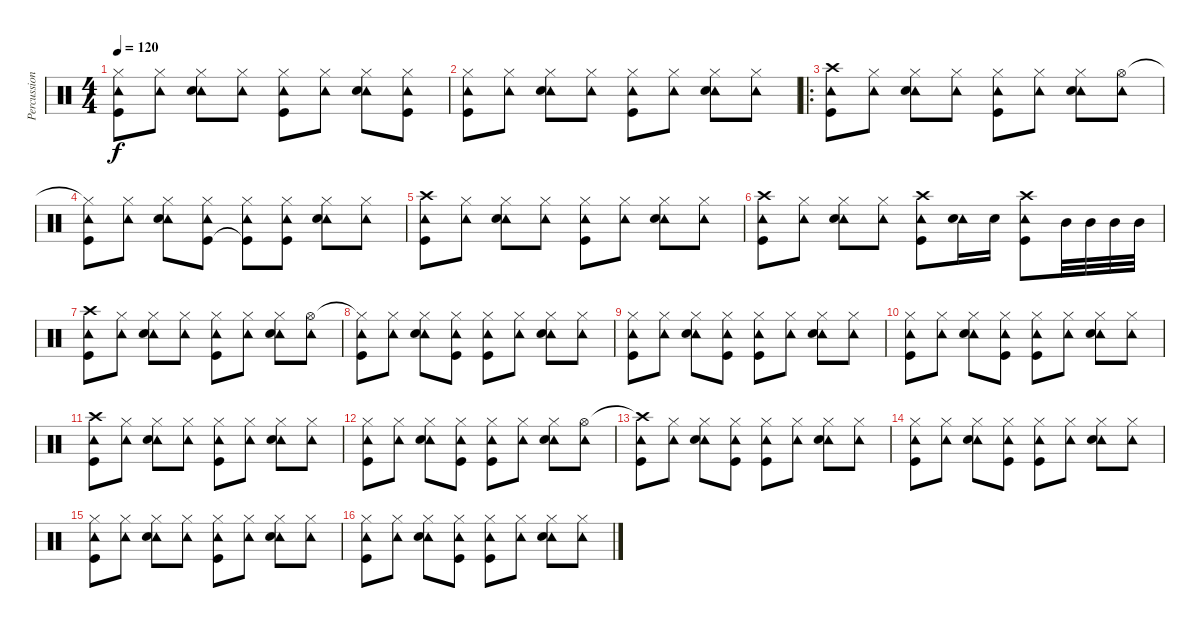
\track ("Percussion" "Percussion") {instrument percussion}
\staff {score}
\articulation defaults
\ts (4 4)
\tempo 120
\clef neutral
\ks c
("Hi-Hat (closed)"{t} "Tambourine (hit)" "Kick (hit)").8{dy f} ("Hi-Hat (closed)" "Tambourine (hit)").8 ("Hi-Hat (closed)" "Tambourine (hit)" "Snare (hit) 2").8 ("Hi-Hat (closed)" "Tambourine (hit)").8 ("Hi-Hat (closed)" "Tambourine (hit)" "Kick (hit)").8 ("Hi-Hat (closed)" "Tambourine (hit)").8 ("Hi-Hat (closed)" "Tambourine (hit)" "Snare (hit) 2").8 ("Hi-Hat (closed)" "Tambourine (hit)" "Kick (hit)").8 |
("Hi-Hat (closed)" "Tambourine (hit)" "Kick (hit)").8 ("Hi-Hat (closed)" "Tambourine (hit)").8 ("Hi-Hat (closed)" "Tambourine (hit)" "Snare (hit) 2").8 ("Hi-Hat (closed)" "Tambourine (hit)").8 ("Hi-Hat (closed)" "Tambourine (hit)" "Kick (hit)").8 ("Hi-Hat (closed)" "Tambourine (hit)").8 ("Hi-Hat (closed)" "Tambourine (hit)" "Snare (hit) 2").8 ("Hi-Hat (closed)" "Tambourine (hit)").8 |
\ro
("Crash high (hit)" "Tambourine (hit)" "Kick (hit)").8 ("Hi-Hat (closed)" "Tambourine (hit)").8 ("Hi-Hat (closed)" "Tambourine (hit)" "Snare (hit) 2").8 ("Hi-Hat (closed)" "Tambourine (hit)").8 ("Hi-Hat (closed)" "Tambourine (hit)" "Kick (hit)").8 ("Hi-Hat (closed)" "Tambourine (hit)").8 ("Hi-Hat (closed)" "Tambourine (hit)" "Snare (hit) 2").8 ("Hi-Hat (open)" "Tambourine (hit)").8 |
("Hi-Hat (closed)"{t} "Tambourine (hit)" "Kick (hit)").8 ("Hi-Hat (closed)" "Tambourine (hit)").8 ("Hi-Hat (closed)" "Tambourine (hit)" "Snare (hit) 2").8 ("Hi-Hat (closed)" "Tambourine (hit)" "Kick (hit)").8 ("Hi-Hat (closed)" "Tambourine (hit)" "Kick (hit)"{t}).8 ("Hi-Hat (closed)" "Tambourine (hit)" "Kick (hit)").8 ("Hi-Hat (closed)" "Tambourine (hit)" "Snare (hit) 2").8 ("Hi-Hat (closed)" "Tambourine (hit)").8 |
("Crash high (hit)" "Tambourine (hit)" "Kick (hit)").8 ("Hi-Hat (closed)" "Tambourine (hit)").8 ("Hi-Hat (closed)" "Tambourine (hit)" "Snare (hit) 2").8 ("Hi-Hat (closed)" "Tambourine (hit)").8 ("Hi-Hat (closed)" "Tambourine (hit)" "Kick (hit)").8 ("Hi-Hat (closed)" "Tambourine (hit)").8 ("Hi-Hat (closed)" "Tambourine (hit)" "Snare (hit) 2").8 ("Hi-Hat (closed)" "Tambourine (hit)").8 |
("Crash high (hit)" "Tambourine (hit)" "Kick (hit)").8 ("Hi-Hat (closed)" "Tambourine (hit)").8 ("Hi-Hat (closed)" "Tambourine (hit)" "Snare (hit) 2").8 ("Hi-Hat (closed)" "Tambourine (hit)").8 ("Crash high (hit)" "Tambourine (hit)" "Kick (hit)").8 ("Tambourine (hit)" "Snare (hit) 2").16 "Snare (hit) 2".16 ("Crash high (hit)" "Tambourine (hit)" "Kick (hit)").8 "Mid Tom (hit)".32 "Mid Tom (hit)".32 "Mid Tom (hit)".32 "Mid Tom (hit)".32 |
("Crash high (hit)" "Tambourine (hit)" "Kick (hit)").8 ("Hi-Hat (closed)" "Tambourine (hit)").8 ("Hi-Hat (closed)" "Tambourine (hit)" "Snare (hit) 2").8 ("Hi-Hat (closed)" "Tambourine (hit)").8 ("Hi-Hat (closed)" "Tambourine (hit)" "Kick (hit)").8 ("Hi-Hat (closed)" "Tambourine (hit)").8 ("Hi-Hat (closed)" "Tambourine (hit)" "Snare (hit) 2").8 ("Hi-Hat (open)" "Tambourine (hit)").8 |
("Hi-Hat (closed)"{t} "Tambourine (hit)" "Kick (hit)").8 ("Hi-Hat (closed)" "Tambourine (hit)").8 ("Hi-Hat (closed)" "Tambourine (hit)" "Snare (hit) 2").8 ("Hi-Hat (closed)" "Tambourine (hit)" "Kick (hit)").8 ("Hi-Hat (closed)" "Tambourine (hit)" "Kick (hit)").8 ("Hi-Hat (closed)" "Tambourine (hit)").8 ("Hi-Hat (closed)" "Tambourine (hit)" "Snare (hit) 2").8 ("Hi-Hat (closed)" "Tambourine (hit)").8 |
("Hi-Hat (closed)" "Tambourine (hit)" "Kick (hit)").8 ("Hi-Hat (closed)" "Tambourine (hit)").8 ("Hi-Hat (closed)" "Tambourine (hit)" "Snare (hit) 2").8 ("Hi-Hat (closed)" "Tambourine (hit)" "Kick (hit)").8 ("Hi-Hat (closed)" "Tambourine (hit)" "Kick (hit)").8 ("Hi-Hat (closed)" "Tambourine (hit)").8 ("Hi-Hat (closed)" "Tambourine (hit)" "Snare (hit) 2").8 ("Hi-Hat (closed)" "Tambourine (hit)").8 |
("Hi-Hat (closed)" "Tambourine (hit)" "Kick (hit)").8 ("Hi-Hat (closed)" "Tambourine (hit)").8 ("Hi-Hat (closed)" "Tambourine (hit)" "Snare (hit) 2").8 ("Hi-Hat (closed)" "Tambourine (hit)" "Kick (hit)").8 ("Hi-Hat (closed)" "Tambourine (hit)" "Kick (hit)").8 ("Hi-Hat (closed)" "Tambourine (hit)").8 ("Hi-Hat (closed)" "Tambourine (hit)" "Snare (hit) 2").8 ("Hi-Hat (closed)" "Tambourine (hit)").8 |
("Crash high (hit)" "Tambourine (hit)" "Kick (hit)").8 ("Hi-Hat (closed)" "Tambourine (hit)").8 ("Hi-Hat (closed)" "Tambourine (hit)" "Snare (hit) 2").8 ("Hi-Hat (closed)" "Tambourine (hit)").8 ("Hi-Hat (closed)" "Tambourine (hit)" "Kick (hit)").8 ("Hi-Hat (closed)" "Tambourine (hit)").8 ("Hi-Hat (closed)" "Tambourine (hit)" "Snare (hit) 2").8 ("Hi-Hat (closed)" "Tambourine (hit)").8 |
("Hi-Hat (closed)" "Tambourine (hit)" "Kick (hit)").8 ("Hi-Hat (closed)" "Tambourine (hit)").8 ("Hi-Hat (closed)" "Tambourine (hit)" "Snare (hit) 2").8 ("Hi-Hat (closed)" "Tambourine (hit)" "Kick (hit)").8 ("Hi-Hat (closed)" "Tambourine (hit)" "Kick (hit)").8 ("Hi-Hat (closed)" "Tambourine (hit)").8 ("Hi-Hat (closed)" "Tambourine (hit)" "Snare (hit) 2").8 ("Hi-Hat (open)" "Tambourine (hit)").8 |
("Crash high (hit)"{t} "Tambourine (hit)" "Kick (hit)").8 ("Hi-Hat (closed)" "Tambourine (hit)").8 ("Hi-Hat (closed)" "Tambourine (hit)" "Snare (hit) 2").8 ("Hi-Hat (closed)" "Tambourine (hit)" "Kick (hit)").8 ("Hi-Hat (closed)" "Tambourine (hit)" "Kick (hit)").8 ("Hi-Hat (closed)" "Tambourine (hit)").8 ("Hi-Hat (closed)" "Tambourine (hit)" "Snare (hit) 2").8 ("Hi-Hat (closed)" "Tambourine (hit)").8 |
("Hi-Hat (closed)" "Tambourine (hit)" "Kick (hit)").8 ("Hi-Hat (closed)" "Tambourine (hit)").8 ("Hi-Hat (closed)" "Tambourine (hit)" "Snare (hit) 2").8 ("Hi-Hat (closed)" "Tambourine (hit)" "Kick (hit)").8 ("Hi-Hat (closed)" "Tambourine (hit)" "Kick (hit)").8 ("Hi-Hat (closed)" "Tambourine (hit)").8 ("Hi-Hat (closed)" "Tambourine (hit)" "Snare (hit) 2").8 ("Hi-Hat (closed)" "Tambourine (hit)").8 |
("Hi-Hat (closed)" "Tambourine (hit)" "Kick (hit)").8 ("Hi-Hat (closed)" "Tambourine (hit)").8 ("Hi-Hat (closed)" "Tambourine (hit)" "Snare (hit) 2").8 ("Hi-Hat (closed)" "Tambourine (hit)").8 ("Hi-Hat (closed)" "Tambourine (hit)" "Kick (hit)").8 ("Hi-Hat (closed)" "Tambourine (hit)").8 ("Hi-Hat (closed)" "Tambourine (hit)" "Snare (hit) 2").8 ("Hi-Hat (closed)" "Tambourine (hit)").8 |
("Hi-Hat (closed)" "Tambourine (hit)" "Kick (hit)").8 ("Hi-Hat (closed)" "Tambourine (hit)").8 ("Hi-Hat (closed)" "Tambourine (hit)" "Snare (hit) 2").8 ("Hi-Hat (closed)" "Tambourine (hit)" "Kick (hit)").8 ("Hi-Hat (closed)" "Tambourine (hit)" "Kick (hit)").8 ("Hi-Hat (closed)" "Tambourine (hit)").8 ("Hi-Hat (closed)" "Tambourine (hit)" "Snare (hit) 2").8 ("Hi-Hat (closed)" "Tambourine (hit)").8
